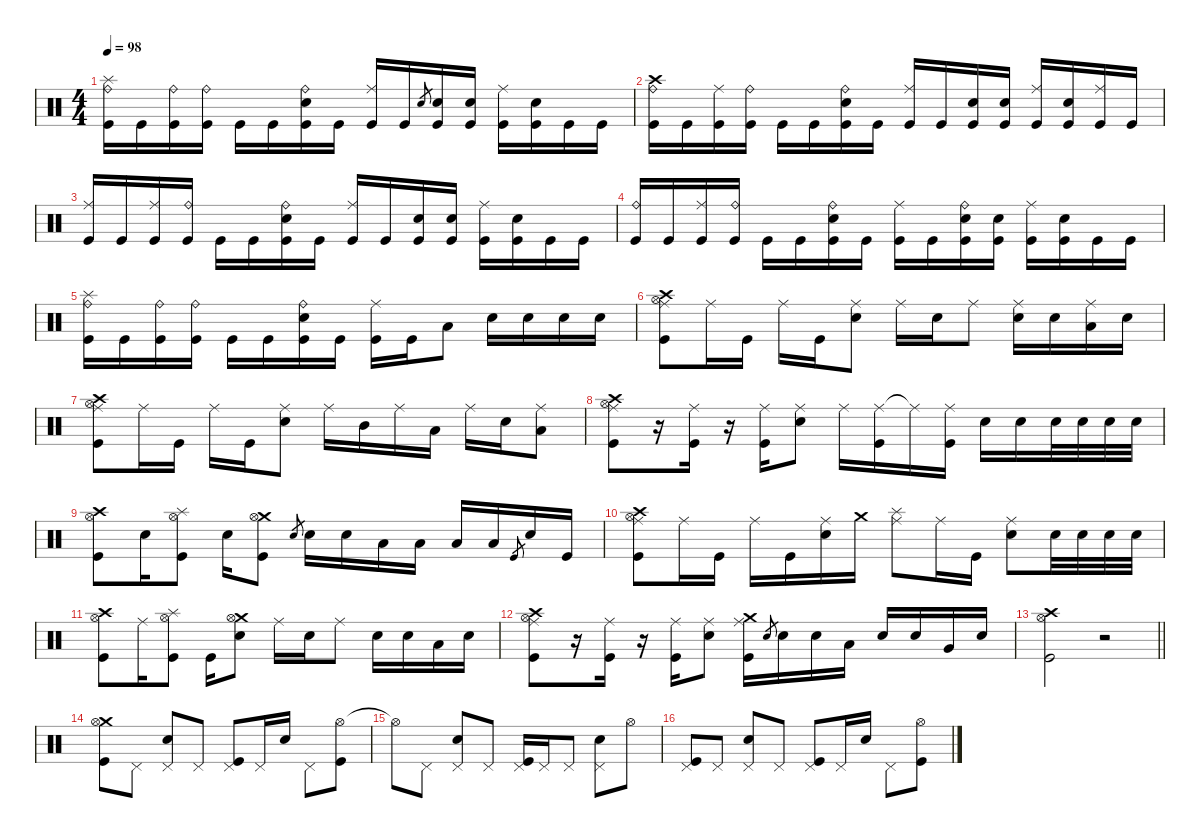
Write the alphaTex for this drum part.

\defaultSystemsLayout 4
\hideDynamics
\bracketExtendMode nobrackets
\singleTrackTrackNamePolicy hidden
\multiTrackTrackNamePolicy hidden
\firstSystemTrackNameMode fullname
\otherSystemsTrackNameOrientation horizontal
\track ("Drums" "drm.") {instrument percussion}
\staff {score}
\articulation defaults
\ts (4 4)
\tempo 98
\clef neutral
\ks aminor
("Splash (hit)" "Ride (bell)" "Kick (hit)").16{dy f beam Down} "Kick (hit)".16{beam Down} ("Ride (bell)" "Kick (hit)").16{beam Down} ("Ride (bell)" "Kick (hit)").16{beam Down} "Kick (hit)".16{beam Down} "Kick (hit)".16{beam Down} ("Ride (bell)" "Snare (hit) 2" "Kick (hit)").16{beam Down} "Kick (hit)".16{beam Down} ("Ride (middle)" "Kick (hit)").16{beam Up} "Kick (hit)".16{beam Up} "Electric Snare (hit)".8{gr dy mf beam Up} ("Snare (hit) 2" "Kick (hit)").16{dy f beam Up} ("Snare (hit) 2" "Kick (hit)").16{beam Up} ("Ride (middle)" "Kick (hit)").16{beam Down} ("Snare (hit) 2" "Kick (hit)").16{beam Down} "Kick (hit)".16{beam Down} "Kick (hit)".16{beam Down} |
("Crash high (hit)" "Ride (bell)" "Kick (hit)").16{beam Down} "Kick (hit)".16{beam Down} ("Ride (middle)" "Kick (hit)").16{beam Down} ("Ride (bell)" "Kick (hit)").16{beam Down} "Kick (hit)".16{beam Down} "Kick (hit)".16{beam Down} ("Ride (bell)" "Snare (hit) 2" "Kick (hit)").16{beam Down} "Kick (hit)".16{beam Down} ("Ride (middle)" "Kick (hit)").16{beam Up} "Kick (hit)".16{beam Up} ("Snare (hit) 2" "Kick (hit)").16{beam Up} ("Snare (hit) 2" "Kick (hit)").16{beam Up} ("Ride (middle)" "Kick (hit)").16{beam Up} ("Snare (hit) 2" "Kick (hit)").16{beam Up} ("Ride (middle)" "Kick (hit)").16{beam Up} "Kick (hit)".16{beam Up} |
("Ride (middle)" "Kick (hit)").16{beam Up} "Kick (hit)".16{beam Up} ("Ride (middle)" "Kick (hit)").16{beam Up} ("Ride (bell)" "Kick (hit)").16{beam Up} "Kick (hit)".16{beam Down} "Kick (hit)".16{beam Down} ("Ride (bell)" "Snare (hit) 2" "Kick (hit)").16{beam Down} "Kick (hit)".16{beam Down} ("Ride (middle)" "Kick (hit)").16{beam Up} "Kick (hit)".16{beam Up} ("Snare (hit) 2" "Kick (hit)").16{beam Up} ("Snare (hit) 2" "Kick (hit)").16{beam Up} ("Ride (middle)" "Kick (hit)").16{beam Down} ("Snare (hit) 2" "Kick (hit)").16{beam Down} "Kick (hit)".16{beam Down} "Kick (hit)".16{beam Down} |
("Ride (bell)" "Kick (hit)").16{beam Up} "Kick (hit)".16{beam Up} ("Ride (middle)" "Kick (hit)").16{beam Up} ("Ride (bell)" "Kick (hit)").16{beam Up} "Kick (hit)".16{beam Down} "Kick (hit)".16{beam Down} ("Ride (bell)" "Snare (hit) 2" "Kick (hit)").16{beam Down} "Kick (hit)".16{beam Down} ("Ride (middle)" "Kick (hit)").16{beam Down} "Kick (hit)".16{beam Down} ("Ride (bell)" "Snare (hit) 2" "Kick (hit)").16{beam Down} ("Snare (hit) 2" "Kick (hit)").16{beam Down} ("Ride (middle)" "Kick (hit)").16{beam Down} ("Snare (hit) 2" "Kick (hit)").16{beam Down} "Kick (hit)".16{beam Down} "Kick (hit)".16{beam Down} |
("Splash (hit)" "Ride (bell)" "Kick (hit)").16{beam Down} "Kick (hit)".16{beam Down} ("Ride (bell)" "Kick (hit)").16{beam Down} ("Ride (bell)" "Kick (hit)").16{beam Down} "Kick (hit)".16{beam Down} "Kick (hit)".16{beam Down} ("Ride (bell)" "Snare (hit) 2" "Kick (hit)").16{beam Down} "Kick (hit)".16{beam Down} ("Ride (middle)" "Kick (hit)").16{beam Down} "Kick (hit)".16{beam Down} "Low Tom (hit)".8{beam Down} "Snare (hit) 2".16{beam Down} "Snare (hit) 2".16{beam Down} "Snare (hit) 2".16{beam Down} "Snare (hit) 2".16{beam Down} |
("Ride (middle)" "Crash high (hit)" "Hi-Hat (open)" "Kick (hit)").8{beam Down} "Ride (middle)".16{beam Down} "Kick (hit)".16{beam Down} "Ride (middle)".16{beam Down} "Kick (hit)".16{beam Down} ("Ride (middle)" "Snare (hit) 2").8{beam Down} "Ride (middle)".16{beam Down} "Snare (hit) 2".16{beam Down} "Ride (middle)".8{beam Down} ("Ride (middle)" "Snare (hit) 2").16{beam Down} "Snare (hit) 2".16{beam Down} ("Ride (middle)" "Low Tom (hit)").16{beam Down} "Snare (hit) 2".16{beam Down} |
("Ride (middle)" "Crash high (hit)" "Hi-Hat (open)" "Kick (hit)").8{beam Down} "Ride (middle)".16{beam Down} "Kick (hit)".16{beam Down} "Ride (middle)".16{beam Down} "Kick (hit)".16{beam Down} ("Ride (middle)" "Snare (hit) 2").8{beam Down} "Ride (middle)".16{beam Down} "Mid Tom (hit)".16{beam Down} "Ride (middle)".16{beam Down} "Low Tom (hit)".16{beam Down} "Ride (middle)".16{beam Down} "Snare (hit) 2".16{beam Down} ("Ride (middle)" "Low Tom (hit)").8{beam Down} |
("Ride (middle)" "Crash high (hit)" "Hi-Hat (open)" "Kick (hit)").8{beam Down} r.16{beam Down} ("Ride (middle)" "Kick (hit)").16{beam Down} r.16{beam Down} ("Ride (middle)" "Kick (hit)").16{beam Down} ("Ride (middle)" "Snare (hit) 2").8{beam Down} "Ride (middle)".16{beam Down} ("Ride (middle)" "Kick (hit)").16{beam Down} "Ride (middle)"{t}.16{beam Down} ("Ride (middle)" "Kick (hit)").16{beam Down} "Snare (hit) 2".16{beam Down} "Snare (hit) 2".16{beam Down} "Snare (hit) 2".32{beam Down} "Snare (hit) 2".32{beam Down} "Snare (hit) 2".32{beam Down} "Snare (hit) 2".32{beam Down} |
("Crash high (hit)" "Hi-Hat (open)" "Kick (hit)").8{beam Down} "Snare (hit) 2".16{beam Down} ("Splash (hit)" "Hi-Hat (open)" "Kick (hit)").8{beam Down} "Snare (hit) 2".16{beam Down} ("Crash medium (hit)" "Hi-Hat (open)" "Kick (hit)").8{beam Down} "Electric Snare (hit)".8{gr dy mf beam Up} "Snare (hit) 2".16{dy f beam Down} "Snare (hit) 2".16{beam Down} "Low Tom (hit)".16{beam Down} "Low Tom (hit)".16{beam Down} "Low Tom (hit)".16{beam Up} "Low Tom (hit)".16{beam Up} "Kick (hit)".8{gr dy mf beam Up} "Snare (hit) 2".16{dy f beam Up} "Kick (hit)".16{beam Up} |
("Ride (middle)" "Crash high (hit)" "Hi-Hat (open)" "Kick (hit)").8{beam Down} "Ride (middle)".16{beam Down} "Kick (hit)".16{beam Down} "Ride (middle)".16{beam Down} "Kick (hit)".16{beam Down} ("Ride (middle)" "Snare (hit) 2").16{beam Down} "Crash medium (hit)".16{dy mp beam Down} ("Ride (middle)" "Splash (hit)").8{dy f beam Down} "Ride (middle)".16{beam Down} "Kick (hit)".16{beam Down} ("Ride (middle)" "Snare (hit) 2").8{beam Down} "Snare (hit) 2".32{beam Down} "Snare (hit) 2".32{beam Down} "Snare (hit) 2".32{beam Down} "Snare (hit) 2".32{beam Down} |
("Crash high (hit)" "Hi-Hat (open)" "Kick (hit)").8{beam Down} "Ride (middle)".16{beam Down} ("Splash (hit)" "Hi-Hat (open)" "Kick (hit)").8{beam Down} "Kick (hit)".16{beam Down} ("Crash medium (hit)" "Hi-Hat (open)" "Snare (hit) 2").8{beam Down} "Ride (middle)".16{beam Down} "Snare (hit) 2".16{beam Down} "Ride (middle)".8{beam Down} "Snare (hit) 2".16{beam Down} "Snare (hit) 2".16{beam Down} "Low Tom (hit)".16{beam Down} "Snare (hit) 2".16{beam Down} |
("Ride (middle)" "Crash high (hit)" "Hi-Hat (open)" "Kick (hit)").8{beam Down} r.16{beam Down} ("Ride (middle)" "Kick (hit)").16{beam Down} r.16{beam Down} ("Ride (middle)" "Kick (hit)").16{beam Down} ("Ride (middle)" "Snare (hit) 2").8{beam Down} ("Crash medium (hit)" "Ride (middle)" "Kick (hit)").16{beam Down} "Electric Snare (hit)".8{gr dy mf beam Up} "Snare (hit) 2".16{dy f beam Down} "Snare (hit) 2".16{beam Down} "Low Tom (hit)".16{beam Down} "Snare (hit) 2".16{beam Up} "Snare (hit) 2".16{beam Up} "Very Low Tom (hit)".16{beam Up} "Snare (hit) 2".16{beam Up} |
\barLineRight lightlight
("Crash high (hit)" "Hi-Hat (open)" "Kick (hit)").2{beam Down} r.2{beam Down} |
("Crash medium (hit)" "Hi-Hat (open)" "Kick (hit)").8{beam Down} "Pedal Hi-Hat (hit)".8{beam Down} ("Pedal Hi-Hat (hit)" "Snare (hit) 2").8{beam Up} "Pedal Hi-Hat (hit)".8{beam Up} ("Pedal Hi-Hat (hit)" "Kick (hit)").8{beam Up} "Pedal Hi-Hat (hit)".16{beam Up} "Snare (hit) 2".16{beam Up} "Pedal Hi-Hat (hit)".8{beam Down} ("Hi-Hat (open)" "Kick (hit)").8{beam Down} |
"Hi-Hat (open)"{t}.8{beam Down} "Pedal Hi-Hat (hit)".8{beam Down} ("Pedal Hi-Hat (hit)" "Snare (hit) 2").8{beam Up} "Pedal Hi-Hat (hit)".8{beam Up} ("Pedal Hi-Hat (hit)" "Kick (hit)").16{beam Up} "Pedal Hi-Hat (hit)".16{beam Up} "Pedal Hi-Hat (hit)".8{beam Up} ("Pedal Hi-Hat (hit)" "Snare (hit) 2").8{beam Down} "Hi-Hat (open)".8{beam Down} |
("Pedal Hi-Hat (hit)" "Kick (hit)").8{beam Up} "Pedal Hi-Hat (hit)".8{beam Up} ("Pedal Hi-Hat (hit)" "Snare (hit) 2").8{beam Up} "Pedal Hi-Hat (hit)".8{beam Up} ("Pedal Hi-Hat (hit)" "Kick (hit)").8{beam Up} "Pedal Hi-Hat (hit)".16{beam Up} "Snare (hit) 2".16{beam Up} "Pedal Hi-Hat (hit)".8{beam Down} ("Hi-Hat (open)" "Kick (hit)").8{beam Down}
